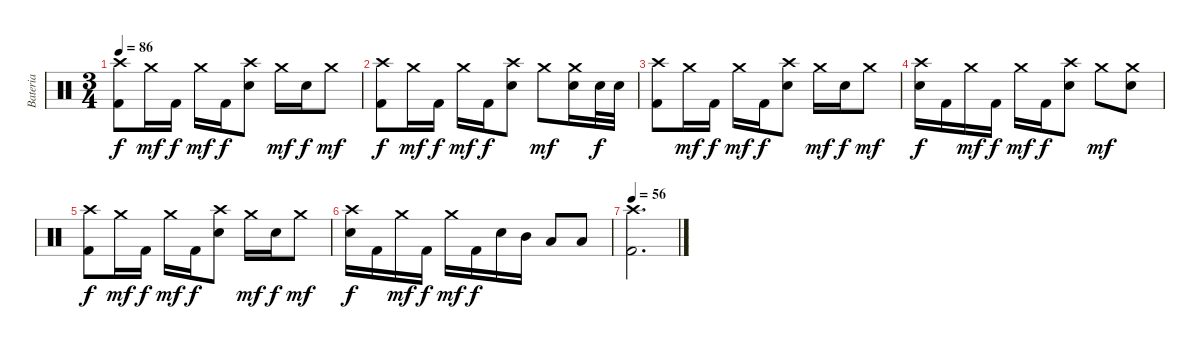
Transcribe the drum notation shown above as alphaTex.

\track ("Bateria" "Bateria") {instrument percussion}
\staff {score}
\articulation defaults
\ts (3 4)
\tempo 86
\clef neutral
\ks c
("Crash high (hit)" "Kick (hit) 2").8{dy f} "Crash medium (hit)".16{dy mf} "Kick (hit) 2".16{dy f} "Crash medium (hit)".16{dy mf} "Kick (hit) 2".16{dy f} ("Crash high (hit)" "Snare (hit) 2").8 "Crash medium (hit)".16{dy mf} "Snare (hit) 2".16{dy f} "Crash medium (hit)".8{dy mf} |
("Crash high (hit)" "Kick (hit) 2").8{dy f} "Crash medium (hit)".16{dy mf} "Kick (hit) 2".16{dy f} "Crash medium (hit)".16{dy mf} "Kick (hit) 2".16{dy f} ("Crash high (hit)" "Snare (hit) 2").8 "Crash medium (hit)".8{dy mf} ("Crash medium (hit)" "Snare (hit) 2").16 "Snare (hit) 2".32{dy f} "Snare (hit) 2".32 |
("Crash high (hit)" "Kick (hit) 2").8 "Crash medium (hit)".16{dy mf} "Kick (hit) 2".16{dy f} "Crash medium (hit)".16{dy mf} "Kick (hit) 2".16{dy f} ("Crash high (hit)" "Snare (hit) 2").8 "Crash medium (hit)".16{dy mf} "Snare (hit) 2".16{dy f} "Crash medium (hit)".8{dy mf} |
("Crash high (hit)" "Snare (hit) 2").16{dy f} "Kick (hit) 2".16 "Crash medium (hit)".16{dy mf} "Kick (hit) 2".16{dy f} "Crash medium (hit)".16{dy mf} "Kick (hit) 2".16{dy f} ("Crash high (hit)" "Snare (hit) 2").8 "Crash medium (hit)".8{dy mf} ("Crash medium (hit)" "Snare (hit) 2").8 |
("Crash high (hit)" "Kick (hit) 2").8{dy f} "Crash medium (hit)".16{dy mf} "Kick (hit) 2".16{dy f} "Crash medium (hit)".16{dy mf} "Kick (hit) 2".16{dy f} ("Crash high (hit)" "Snare (hit) 2").8 "Crash medium (hit)".16{dy mf} "Snare (hit) 2".16{dy f} "Crash medium (hit)".8{dy mf} |
("Crash high (hit)" "Snare (hit) 2").16{dy f} "Kick (hit) 2".16 "Crash medium (hit)".16{dy mf} "Kick (hit) 2".16{dy f} "Crash medium (hit)".16{dy mf} "Kick (hit) 2".16{dy f} "Snare (hit) 2".16 "Mid Tom (hit)".16 "Low Tom (hit)".8 "Low Floor Tom (hit)".8 |
\tempo 56
("Crash high (hit)" "Kick (hit) 2").2{d}
